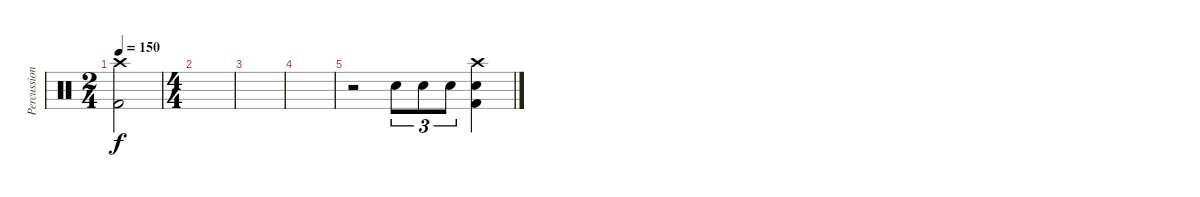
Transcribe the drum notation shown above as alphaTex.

\track ("Percussion" "Percussion") {instrument percussion}
\staff {score}
\articulation defaults
\ts (2 4)
\tempo 150
\clef neutral
\ks c
("Crash high (hit)" "Kick (hit) 2").2{dy f} |
\ts (4 4)
|
|
|
r.2 "Electric Snare (hit)".8{tu (3 2)} "Electric Snare (hit)".8{tu (3 2)} "Electric Snare (hit)".8{tu (3 2)} ("Crash high (hit)" "Electric Snare (hit)" "Kick (hit) 2").4
